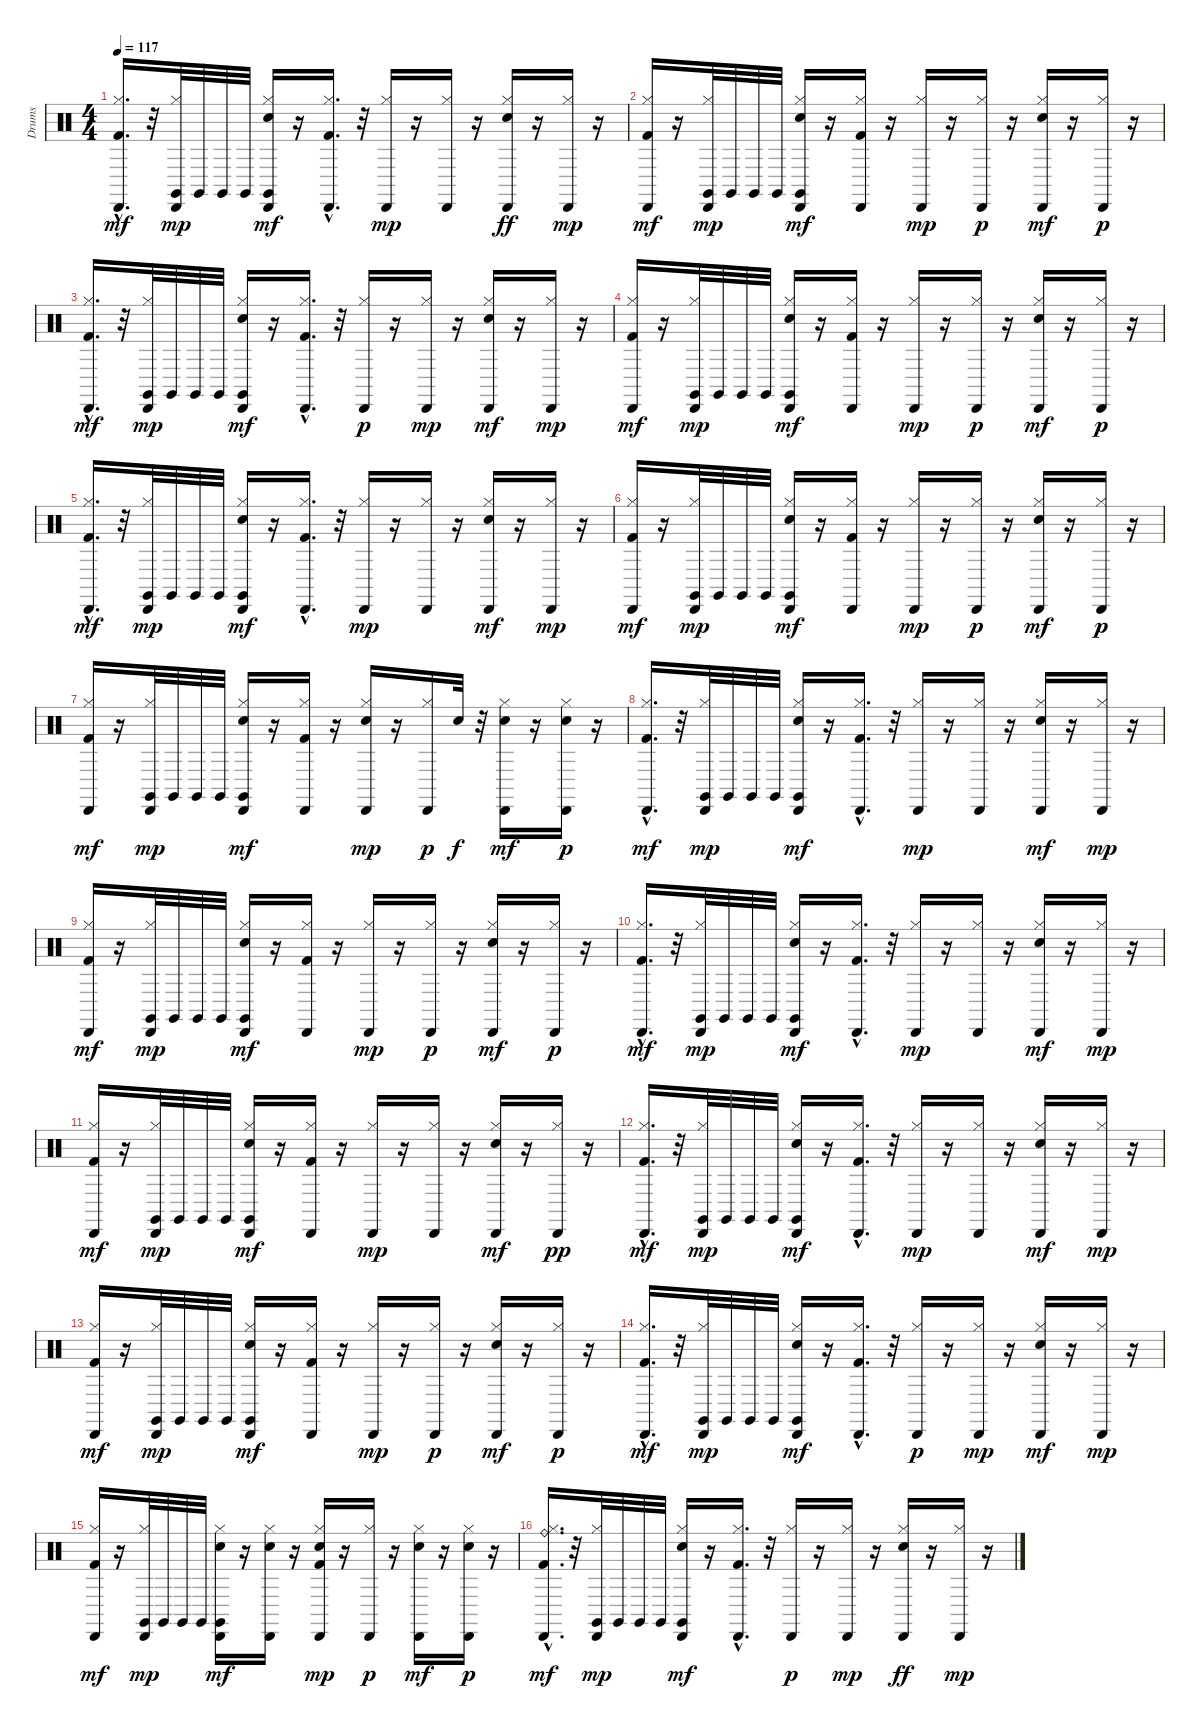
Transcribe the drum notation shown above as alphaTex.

\track ("Drums" "Drums") {instrument percussion}
\staff {score}
\articulation defaults
\ts (4 4)
\tempo 117
\clef neutral
\ks c
("Kick (hit) 2"{hac} "Hi-Hat (closed)" "Cabasa (hit)").16{d dy mf} r.32 ("Hi-Hat (closed)" "Cabasa (hit)" "Claves (hit)").32{dy mp} "Claves (hit)".32 "Claves (hit)".32 "Claves (hit)".32 ("Electric Snare (hit)" "Hi-Hat (closed)" "Cabasa (hit)" "Claves (hit)").16{dy mf} r.16 ("Kick (hit) 2"{hac} "Hi-Hat (closed)" "Cabasa (hit)").16{d} r.32 ("Hi-Hat (closed)" "Cabasa (hit)").16{dy mp} r.16 ("Hi-Hat (closed)" "Cabasa (hit)").16 r.16 ("Electric Snare (hit)" "Hi-Hat (closed)" "Cabasa (hit)").16{dy ff} r.16 ("Hi-Hat (closed)" "Cabasa (hit)").16{dy mp} r.16 |
("Kick (hit) 2" "Hi-Hat (closed)" "Cabasa (hit)").16{dy mf} r.16 ("Hi-Hat (closed)" "Cabasa (hit)" "Claves (hit)").32{dy mp} "Claves (hit)".32 "Claves (hit)".32 "Claves (hit)".32 ("Electric Snare (hit)" "Hi-Hat (closed)" "Cabasa (hit)" "Claves (hit)").16{dy mf} r.16 ("Kick (hit) 2" "Hi-Hat (closed)" "Cabasa (hit)").16 r.16 ("Hi-Hat (closed)" "Cabasa (hit)").16{dy mp} r.16 ("Hi-Hat (closed)" "Cabasa (hit)").16{dy p} r.16 ("Electric Snare (hit)" "Hi-Hat (closed)" "Cabasa (hit)").16{dy mf} r.16 ("Hi-Hat (closed)" "Cabasa (hit)").16{dy p} r.16 |
("Kick (hit) 2"{hac} "Hi-Hat (closed)" "Cabasa (hit)").16{d dy mf} r.32 ("Hi-Hat (closed)" "Cabasa (hit)" "Claves (hit)").32{dy mp} "Claves (hit)".32 "Claves (hit)".32 "Claves (hit)".32 ("Electric Snare (hit)" "Hi-Hat (closed)" "Cabasa (hit)" "Claves (hit)").16{dy mf} r.16 ("Kick (hit) 2"{hac} "Hi-Hat (closed)" "Cabasa (hit)").16{d} r.32 ("Hi-Hat (closed)" "Cabasa (hit)").16{dy p} r.16 ("Hi-Hat (closed)" "Cabasa (hit)").16{dy mp} r.16 ("Electric Snare (hit)" "Hi-Hat (closed)" "Cabasa (hit)").16{dy mf} r.16 ("Hi-Hat (closed)" "Cabasa (hit)").16{dy mp} r.16 |
("Kick (hit) 2" "Hi-Hat (closed)" "Cabasa (hit)").16{dy mf} r.16 ("Hi-Hat (closed)" "Cabasa (hit)" "Claves (hit)").32{dy mp} "Claves (hit)".32 "Claves (hit)".32 "Claves (hit)".32 ("Electric Snare (hit)" "Hi-Hat (closed)" "Cabasa (hit)" "Claves (hit)").16{dy mf} r.16 ("Kick (hit) 2" "Hi-Hat (closed)" "Cabasa (hit)").16 r.16 ("Hi-Hat (closed)" "Cabasa (hit)").16{dy mp} r.16 ("Hi-Hat (closed)" "Cabasa (hit)").16{dy p} r.16 ("Electric Snare (hit)" "Hi-Hat (closed)" "Cabasa (hit)").16{dy mf} r.16 ("Hi-Hat (closed)" "Cabasa (hit)").16{dy p} r.16 |
("Kick (hit) 2"{hac} "Hi-Hat (closed)" "Cabasa (hit)").16{d dy mf} r.32 ("Hi-Hat (closed)" "Cabasa (hit)" "Claves (hit)").32{dy mp} "Claves (hit)".32 "Claves (hit)".32 "Claves (hit)".32 ("Electric Snare (hit)" "Hi-Hat (closed)" "Cabasa (hit)" "Claves (hit)").16{dy mf} r.16 ("Kick (hit) 2"{hac} "Hi-Hat (closed)" "Cabasa (hit)").16{d} r.32 ("Hi-Hat (closed)" "Cabasa (hit)").16{dy mp} r.16 ("Hi-Hat (closed)" "Cabasa (hit)").16 r.16 ("Electric Snare (hit)" "Hi-Hat (closed)" "Cabasa (hit)").16{dy mf} r.16 ("Hi-Hat (closed)" "Cabasa (hit)").16{dy mp} r.16 |
("Kick (hit) 2" "Hi-Hat (closed)" "Cabasa (hit)").16{dy mf} r.16 ("Hi-Hat (closed)" "Cabasa (hit)" "Claves (hit)").32{dy mp} "Claves (hit)".32 "Claves (hit)".32 "Claves (hit)".32 ("Electric Snare (hit)" "Hi-Hat (closed)" "Cabasa (hit)" "Claves (hit)").16{dy mf} r.16 ("Kick (hit) 2" "Hi-Hat (closed)" "Cabasa (hit)").16 r.16 ("Hi-Hat (closed)" "Cabasa (hit)").16{dy mp} r.16 ("Hi-Hat (closed)" "Cabasa (hit)").16{dy p} r.16 ("Electric Snare (hit)" "Hi-Hat (closed)" "Cabasa (hit)").16{dy mf} r.16 ("Hi-Hat (closed)" "Cabasa (hit)").16{dy p} r.16 |
("Kick (hit) 2" "Hi-Hat (closed)" "Cabasa (hit)").16{dy mf} r.16 ("Hi-Hat (closed)" "Cabasa (hit)" "Claves (hit)").32{dy mp} "Claves (hit)".32 "Claves (hit)".32 "Claves (hit)".32 ("Electric Snare (hit)" "Hi-Hat (closed)" "Cabasa (hit)" "Claves (hit)").16{dy mf} r.16 ("Kick (hit) 2" "Hi-Hat (closed)" "Cabasa (hit)").16 r.16 ("Electric Snare (hit)" "Hi-Hat (closed)" "Cabasa (hit)").16{dy mp} r.16 ("Hi-Hat (closed)" "Cabasa (hit)").16{dy p} "Electric Snare (hit)".32{dy f} r.32 ("Electric Snare (hit)" "Hi-Hat (closed)" "Cabasa (hit)").16{dy mf} r.16 ("Electric Snare (hit)" "Hi-Hat (closed)" "Cabasa (hit)").16{dy p} r.16 |
("Kick (hit) 2"{hac} "Hi-Hat (closed)" "Cabasa (hit)").16{d dy mf} r.32 ("Hi-Hat (closed)" "Cabasa (hit)" "Claves (hit)").32{dy mp} "Claves (hit)".32 "Claves (hit)".32 "Claves (hit)".32 ("Electric Snare (hit)" "Hi-Hat (closed)" "Cabasa (hit)" "Claves (hit)").16{dy mf} r.16 ("Kick (hit) 2"{hac} "Hi-Hat (closed)" "Cabasa (hit)").16{d} r.32 ("Hi-Hat (closed)" "Cabasa (hit)").16{dy mp} r.16 ("Hi-Hat (closed)" "Cabasa (hit)").16 r.16 ("Electric Snare (hit)" "Hi-Hat (closed)" "Cabasa (hit)").16{dy mf} r.16 ("Hi-Hat (closed)" "Cabasa (hit)").16{dy mp} r.16 |
("Kick (hit) 2" "Hi-Hat (closed)" "Cabasa (hit)").16{dy mf} r.16 ("Hi-Hat (closed)" "Cabasa (hit)" "Claves (hit)").32{dy mp} "Claves (hit)".32 "Claves (hit)".32 "Claves (hit)".32 ("Electric Snare (hit)" "Hi-Hat (closed)" "Cabasa (hit)" "Claves (hit)").16{dy mf} r.16 ("Kick (hit) 2" "Hi-Hat (closed)" "Cabasa (hit)").16 r.16 ("Hi-Hat (closed)" "Cabasa (hit)").16{dy mp} r.16 ("Hi-Hat (closed)" "Cabasa (hit)").16{dy p} r.16 ("Electric Snare (hit)" "Hi-Hat (closed)" "Cabasa (hit)").16{dy mf} r.16 ("Hi-Hat (closed)" "Cabasa (hit)").16{dy p} r.16 |
("Kick (hit) 2"{hac} "Hi-Hat (closed)" "Cabasa (hit)").16{d dy mf} r.32 ("Hi-Hat (closed)" "Cabasa (hit)" "Claves (hit)").32{dy mp} "Claves (hit)".32 "Claves (hit)".32 "Claves (hit)".32 ("Electric Snare (hit)" "Hi-Hat (closed)" "Cabasa (hit)" "Claves (hit)").16{dy mf} r.16 ("Kick (hit) 2"{hac} "Hi-Hat (closed)" "Cabasa (hit)").16{d} r.32 ("Hi-Hat (closed)" "Cabasa (hit)").16{dy mp} r.16 ("Hi-Hat (closed)" "Cabasa (hit)").16 r.16 ("Electric Snare (hit)" "Hi-Hat (closed)" "Cabasa (hit)").16{dy mf} r.16 ("Hi-Hat (closed)" "Cabasa (hit)").16{dy mp} r.16 |
("Kick (hit) 2" "Hi-Hat (closed)" "Cabasa (hit)").16{dy mf} r.16 ("Hi-Hat (closed)" "Cabasa (hit)" "Claves (hit)").32{dy mp} "Claves (hit)".32 "Claves (hit)".32 "Claves (hit)".32 ("Electric Snare (hit)" "Hi-Hat (closed)" "Cabasa (hit)" "Claves (hit)").16{dy mf} r.16 ("Kick (hit) 2" "Hi-Hat (closed)" "Cabasa (hit)").16 r.16 ("Hi-Hat (closed)" "Cabasa (hit)").16{dy mp} r.16 ("Hi-Hat (closed)" "Cabasa (hit)").16 r.16 ("Electric Snare (hit)" "Hi-Hat (closed)" "Cabasa (hit)").16{dy mf} r.16 ("Hi-Hat (closed)" "Cabasa (hit)").16{dy pp} r.16 |
("Kick (hit) 2"{hac} "Hi-Hat (closed)" "Cabasa (hit)").16{d dy mf} r.32 ("Hi-Hat (closed)" "Cabasa (hit)" "Claves (hit)").32{dy mp} "Claves (hit)".32 "Claves (hit)".32 "Claves (hit)".32 ("Electric Snare (hit)" "Hi-Hat (closed)" "Cabasa (hit)" "Claves (hit)").16{dy mf} r.16 ("Kick (hit) 2"{hac} "Hi-Hat (closed)" "Cabasa (hit)").16{d} r.32 ("Hi-Hat (closed)" "Cabasa (hit)").16{dy mp} r.16 ("Hi-Hat (closed)" "Cabasa (hit)").16 r.16 ("Electric Snare (hit)" "Hi-Hat (closed)" "Cabasa (hit)").16{dy mf} r.16 ("Hi-Hat (closed)" "Cabasa (hit)").16{dy mp} r.16 |
("Kick (hit) 2" "Hi-Hat (closed)" "Cabasa (hit)").16{dy mf} r.16 ("Hi-Hat (closed)" "Cabasa (hit)" "Claves (hit)").32{dy mp} "Claves (hit)".32 "Claves (hit)".32 "Claves (hit)".32 ("Electric Snare (hit)" "Hi-Hat (closed)" "Cabasa (hit)" "Claves (hit)").16{dy mf} r.16 ("Kick (hit) 2" "Hi-Hat (closed)" "Cabasa (hit)").16 r.16 ("Hi-Hat (closed)" "Cabasa (hit)").16{dy mp} r.16 ("Hi-Hat (closed)" "Cabasa (hit)").16{dy p} r.16 ("Electric Snare (hit)" "Hi-Hat (closed)" "Cabasa (hit)").16{dy mf} r.16 ("Hi-Hat (closed)" "Cabasa (hit)").16{dy p} r.16 |
("Kick (hit) 2"{hac} "Hi-Hat (closed)" "Cabasa (hit)").16{d dy mf} r.32 ("Hi-Hat (closed)" "Cabasa (hit)" "Claves (hit)").32{dy mp} "Claves (hit)".32 "Claves (hit)".32 "Claves (hit)".32 ("Electric Snare (hit)" "Hi-Hat (closed)" "Cabasa (hit)" "Claves (hit)").16{dy mf} r.16 ("Kick (hit) 2"{hac} "Hi-Hat (closed)" "Cabasa (hit)").16{d} r.32 ("Hi-Hat (closed)" "Cabasa (hit)").16{dy p} r.16 ("Hi-Hat (closed)" "Cabasa (hit)").16{dy mp} r.16 ("Electric Snare (hit)" "Hi-Hat (closed)" "Cabasa (hit)").16{dy mf} r.16 ("Hi-Hat (closed)" "Cabasa (hit)").16{dy mp} r.16 |
("Kick (hit) 2" "Hi-Hat (closed)" "Cabasa (hit)").16{dy mf} r.16 ("Hi-Hat (closed)" "Cabasa (hit)" "Claves (hit)").32{dy mp} "Claves (hit)".32 "Claves (hit)".32 "Claves (hit)".32 ("Electric Snare (hit)" "Hi-Hat (closed)" "Cabasa (hit)" "Claves (hit)").16{dy mf} r.16 ("Electric Snare (hit)" "Hi-Hat (closed)" "Cabasa (hit)").16 r.16 ("Kick (hit) 2" "Electric Snare (hit)" "Hi-Hat (closed)" "Cabasa (hit)").16{dy mp} r.16 ("Hi-Hat (closed)" "Cabasa (hit)").16{dy p} r.16 ("Electric Snare (hit)" "Hi-Hat (closed)" "Cabasa (hit)").16{dy mf} r.16 ("Electric Snare (hit)" "Hi-Hat (closed)" "Cabasa (hit)").16{dy p} r.16 |
("Kick (hit) 2"{hac} "Hi-Hat (closed)" "Ride (bell)" "Cabasa (hit)").16{d dy mf} r.32 ("Hi-Hat (closed)" "Cabasa (hit)" "Claves (hit)").32{dy mp} "Claves (hit)".32 "Claves (hit)".32 "Claves (hit)".32 ("Electric Snare (hit)" "Hi-Hat (closed)" "Cabasa (hit)" "Claves (hit)").16{dy mf} r.16 ("Kick (hit) 2"{hac} "Hi-Hat (closed)" "Cabasa (hit)").16{d} r.32 ("Hi-Hat (closed)" "Cabasa (hit)").16{dy p} r.16 ("Hi-Hat (closed)" "Cabasa (hit)").16{dy mp} r.16 ("Electric Snare (hit)" "Hi-Hat (closed)" "Cabasa (hit)").16{dy ff} r.16 ("Hi-Hat (closed)" "Cabasa (hit)").16{dy mp} r.16
